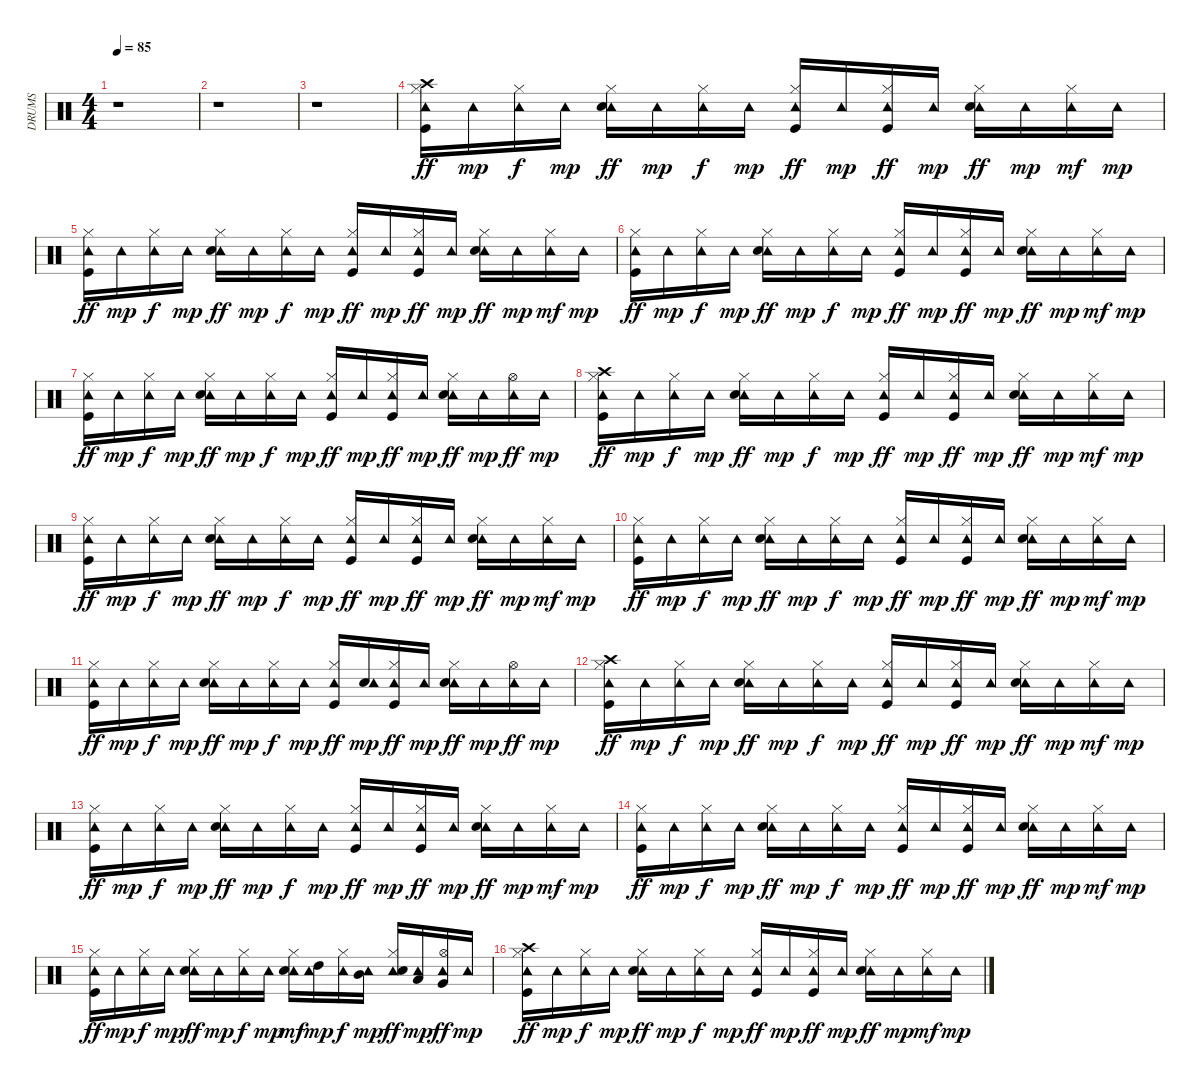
\track ("DRUMS" "DRUMS") {instrument percussion}
\staff {score}
\articulation defaults
\ts (4 4)
\tempo 85
\clef neutral
\ks c
r.1{dy f} |
r.1 |
r.1 |
("Tambourine (hit)" "Crash high (hit)" "Hi-Hat (closed)" "Kick (hit)").16{dy ff} "Tambourine (hit)".16{dy mp} ("Tambourine (hit)" "Hi-Hat (closed)").16{dy f} "Tambourine (hit)".16{dy mp} ("Tambourine (hit)" "Electric Snare (hit)" "Hi-Hat (closed)").16{dy ff} "Tambourine (hit)".16{dy mp} ("Tambourine (hit)" "Hi-Hat (closed)").16{dy f} "Tambourine (hit)".16{dy mp} ("Tambourine (hit)" "Hi-Hat (closed)" "Kick (hit)").16{dy ff} "Tambourine (hit)".16{dy mp} ("Tambourine (hit)" "Hi-Hat (closed)" "Kick (hit)").16{dy ff} "Tambourine (hit)".16{dy mp} ("Tambourine (hit)" "Electric Snare (hit)" "Hi-Hat (closed)").16{dy ff} "Tambourine (hit)".16{dy mp} ("Tambourine (hit)" "Hi-Hat (closed)").16{dy mf} "Tambourine (hit)".16{dy mp} |
("Tambourine (hit)" "Hi-Hat (closed)" "Kick (hit)").16{dy ff} "Tambourine (hit)".16{dy mp} ("Tambourine (hit)" "Hi-Hat (closed)").16{dy f} "Tambourine (hit)".16{dy mp} ("Tambourine (hit)" "Electric Snare (hit)" "Hi-Hat (closed)").16{dy ff} "Tambourine (hit)".16{dy mp} ("Tambourine (hit)" "Hi-Hat (closed)").16{dy f} "Tambourine (hit)".16{dy mp} ("Tambourine (hit)" "Hi-Hat (closed)" "Kick (hit)").16{dy ff} "Tambourine (hit)".16{dy mp} ("Tambourine (hit)" "Hi-Hat (closed)" "Kick (hit)").16{dy ff} "Tambourine (hit)".16{dy mp} ("Tambourine (hit)" "Electric Snare (hit)" "Hi-Hat (closed)").16{dy ff} "Tambourine (hit)".16{dy mp} ("Tambourine (hit)" "Hi-Hat (closed)").16{dy mf} "Tambourine (hit)".16{dy mp} |
("Tambourine (hit)" "Hi-Hat (closed)" "Kick (hit)").16{dy ff} "Tambourine (hit)".16{dy mp} ("Tambourine (hit)" "Hi-Hat (closed)").16{dy f} "Tambourine (hit)".16{dy mp} ("Tambourine (hit)" "Electric Snare (hit)" "Hi-Hat (closed)").16{dy ff} "Tambourine (hit)".16{dy mp} ("Tambourine (hit)" "Hi-Hat (closed)").16{dy f} "Tambourine (hit)".16{dy mp} ("Tambourine (hit)" "Hi-Hat (closed)" "Kick (hit)").16{dy ff} "Tambourine (hit)".16{dy mp} ("Tambourine (hit)" "Hi-Hat (closed)" "Kick (hit)").16{dy ff} "Tambourine (hit)".16{dy mp} ("Tambourine (hit)" "Electric Snare (hit)" "Hi-Hat (closed)").16{dy ff} "Tambourine (hit)".16{dy mp} ("Tambourine (hit)" "Hi-Hat (closed)").16{dy mf} "Tambourine (hit)".16{dy mp} |
("Tambourine (hit)" "Hi-Hat (closed)" "Kick (hit)").16{dy ff} "Tambourine (hit)".16{dy mp} ("Tambourine (hit)" "Hi-Hat (closed)").16{dy f} "Tambourine (hit)".16{dy mp} ("Tambourine (hit)" "Electric Snare (hit)" "Hi-Hat (closed)").16{dy ff} "Tambourine (hit)".16{dy mp} ("Tambourine (hit)" "Hi-Hat (closed)").16{dy f} "Tambourine (hit)".16{dy mp} ("Tambourine (hit)" "Hi-Hat (closed)" "Kick (hit)").16{dy ff} "Tambourine (hit)".16{dy mp} ("Tambourine (hit)" "Hi-Hat (closed)" "Kick (hit)").16{dy ff} "Tambourine (hit)".16{dy mp} ("Tambourine (hit)" "Electric Snare (hit)" "Hi-Hat (closed)").16{dy ff} "Tambourine (hit)".16{dy mp} ("Tambourine (hit)" "Hi-Hat (open)").16{dy ff} "Tambourine (hit)".16{dy mp} |
("Tambourine (hit)" "Crash high (hit)" "Hi-Hat (closed)" "Kick (hit)").16{dy ff} "Tambourine (hit)".16{dy mp} ("Tambourine (hit)" "Hi-Hat (closed)").16{dy f} "Tambourine (hit)".16{dy mp} ("Tambourine (hit)" "Electric Snare (hit)" "Hi-Hat (closed)").16{dy ff} "Tambourine (hit)".16{dy mp} ("Tambourine (hit)" "Hi-Hat (closed)").16{dy f} "Tambourine (hit)".16{dy mp} ("Tambourine (hit)" "Hi-Hat (closed)" "Kick (hit)").16{dy ff} "Tambourine (hit)".16{dy mp} ("Tambourine (hit)" "Hi-Hat (closed)" "Kick (hit)").16{dy ff} "Tambourine (hit)".16{dy mp} ("Tambourine (hit)" "Electric Snare (hit)" "Hi-Hat (closed)").16{dy ff} "Tambourine (hit)".16{dy mp} ("Tambourine (hit)" "Hi-Hat (closed)").16{dy mf} "Tambourine (hit)".16{dy mp} |
("Tambourine (hit)" "Hi-Hat (closed)" "Kick (hit)").16{dy ff} "Tambourine (hit)".16{dy mp} ("Tambourine (hit)" "Hi-Hat (closed)").16{dy f} "Tambourine (hit)".16{dy mp} ("Tambourine (hit)" "Electric Snare (hit)" "Hi-Hat (closed)").16{dy ff} "Tambourine (hit)".16{dy mp} ("Tambourine (hit)" "Hi-Hat (closed)").16{dy f} "Tambourine (hit)".16{dy mp} ("Tambourine (hit)" "Hi-Hat (closed)" "Kick (hit)").16{dy ff} "Tambourine (hit)".16{dy mp} ("Tambourine (hit)" "Hi-Hat (closed)" "Kick (hit)").16{dy ff} "Tambourine (hit)".16{dy mp} ("Tambourine (hit)" "Electric Snare (hit)" "Hi-Hat (closed)").16{dy ff} "Tambourine (hit)".16{dy mp} ("Tambourine (hit)" "Hi-Hat (closed)").16{dy mf} "Tambourine (hit)".16{dy mp} |
("Tambourine (hit)" "Hi-Hat (closed)" "Kick (hit)").16{dy ff} "Tambourine (hit)".16{dy mp} ("Tambourine (hit)" "Hi-Hat (closed)").16{dy f} "Tambourine (hit)".16{dy mp} ("Tambourine (hit)" "Electric Snare (hit)" "Hi-Hat (closed)").16{dy ff} "Tambourine (hit)".16{dy mp} ("Tambourine (hit)" "Hi-Hat (closed)").16{dy f} "Tambourine (hit)".16{dy mp} ("Tambourine (hit)" "Hi-Hat (closed)" "Kick (hit)").16{dy ff} "Tambourine (hit)".16{dy mp} ("Tambourine (hit)" "Hi-Hat (closed)" "Kick (hit)").16{dy ff} "Tambourine (hit)".16{dy mp} ("Tambourine (hit)" "Electric Snare (hit)" "Hi-Hat (closed)").16{dy ff} "Tambourine (hit)".16{dy mp} ("Tambourine (hit)" "Hi-Hat (closed)").16{dy mf} "Tambourine (hit)".16{dy mp} |
("Tambourine (hit)" "Hi-Hat (closed)" "Kick (hit)").16{dy ff} "Tambourine (hit)".16{dy mp} ("Tambourine (hit)" "Hi-Hat (closed)").16{dy f} "Tambourine (hit)".16{dy mp} ("Tambourine (hit)" "Electric Snare (hit)" "Hi-Hat (closed)").16{dy ff} "Tambourine (hit)".16{dy mp} ("Tambourine (hit)" "Hi-Hat (closed)").16{dy f} "Tambourine (hit)".16{dy mp} ("Tambourine (hit)" "Hi-Hat (closed)" "Kick (hit)").16{dy ff} ("Electric Snare (hit)" "Tambourine (hit)").16{dy mp} ("Tambourine (hit)" "Hi-Hat (closed)" "Kick (hit)").16{dy ff} "Tambourine (hit)".16{dy mp} ("Tambourine (hit)" "Electric Snare (hit)" "Hi-Hat (closed)").16{dy ff} "Tambourine (hit)".16{dy mp} ("Tambourine (hit)" "Hi-Hat (open)").16{dy ff} "Tambourine (hit)".16{dy mp} |
("Tambourine (hit)" "Crash high (hit)" "Hi-Hat (closed)" "Kick (hit)").16{dy ff} "Tambourine (hit)".16{dy mp} ("Tambourine (hit)" "Hi-Hat (closed)").16{dy f} "Tambourine (hit)".16{dy mp} ("Tambourine (hit)" "Electric Snare (hit)" "Hi-Hat (closed)").16{dy ff} "Tambourine (hit)".16{dy mp} ("Tambourine (hit)" "Hi-Hat (closed)").16{dy f} "Tambourine (hit)".16{dy mp} ("Tambourine (hit)" "Hi-Hat (closed)" "Kick (hit)").16{dy ff} "Tambourine (hit)".16{dy mp} ("Tambourine (hit)" "Hi-Hat (closed)" "Kick (hit)").16{dy ff} "Tambourine (hit)".16{dy mp} ("Tambourine (hit)" "Electric Snare (hit)" "Hi-Hat (closed)").16{dy ff} "Tambourine (hit)".16{dy mp} ("Tambourine (hit)" "Hi-Hat (closed)").16{dy mf} "Tambourine (hit)".16{dy mp} |
("Tambourine (hit)" "Hi-Hat (closed)" "Kick (hit)").16{dy ff} "Tambourine (hit)".16{dy mp} ("Tambourine (hit)" "Hi-Hat (closed)").16{dy f} "Tambourine (hit)".16{dy mp} ("Tambourine (hit)" "Electric Snare (hit)" "Hi-Hat (closed)").16{dy ff} "Tambourine (hit)".16{dy mp} ("Tambourine (hit)" "Hi-Hat (closed)").16{dy f} "Tambourine (hit)".16{dy mp} ("Tambourine (hit)" "Hi-Hat (closed)" "Kick (hit)").16{dy ff} "Tambourine (hit)".16{dy mp} ("Tambourine (hit)" "Hi-Hat (closed)" "Kick (hit)").16{dy ff} "Tambourine (hit)".16{dy mp} ("Tambourine (hit)" "Electric Snare (hit)" "Hi-Hat (closed)").16{dy ff} "Tambourine (hit)".16{dy mp} ("Tambourine (hit)" "Hi-Hat (closed)").16{dy mf} "Tambourine (hit)".16{dy mp} |
("Tambourine (hit)" "Hi-Hat (closed)" "Kick (hit)").16{dy ff} "Tambourine (hit)".16{dy mp} ("Tambourine (hit)" "Hi-Hat (closed)").16{dy f} "Tambourine (hit)".16{dy mp} ("Tambourine (hit)" "Electric Snare (hit)" "Hi-Hat (closed)").16{dy ff} "Tambourine (hit)".16{dy mp} ("Tambourine (hit)" "Hi-Hat (closed)").16{dy f} "Tambourine (hit)".16{dy mp} ("Tambourine (hit)" "Hi-Hat (closed)" "Kick (hit)").16{dy ff} "Tambourine (hit)".16{dy mp} ("Tambourine (hit)" "Hi-Hat (closed)" "Kick (hit)").16{dy ff} "Tambourine (hit)".16{dy mp} ("Tambourine (hit)" "Electric Snare (hit)" "Hi-Hat (closed)").16{dy ff} "Tambourine (hit)".16{dy mp} ("Tambourine (hit)" "Hi-Hat (closed)").16{dy mf} "Tambourine (hit)".16{dy mp} |
("Tambourine (hit)" "Hi-Hat (closed)" "Kick (hit)").16{dy ff} "Tambourine (hit)".16{dy mp} ("Tambourine (hit)" "Hi-Hat (closed)").16{dy f} "Tambourine (hit)".16{dy mp} ("Tambourine (hit)" "Electric Snare (hit)" "Hi-Hat (closed)").16{dy ff} "Tambourine (hit)".16{dy mp} ("Tambourine (hit)" "Hi-Hat (closed)").16{dy f} "Tambourine (hit)".16{dy mp} ("Tambourine (hit)" "Electric Snare (hit)" "Hi-Hat (closed)").16{dy mf} ("High Tom (hit)" "Tambourine (hit)").16{dy mp} ("Tambourine (hit)" "Hi-Hat (closed)").16{dy f} ("Mid Tom (hit)" "Tambourine (hit)").16{dy mp} ("Tambourine (hit)" "Electric Snare (hit)" "Hi-Hat (closed)").16{dy ff} ("Low Tom (hit)" "Tambourine (hit)").16{dy mp} ("Very Low Tom (hit)" "Tambourine (hit)" "Hi-Hat (open)").16{dy ff} "Tambourine (hit)".16{dy mp} |
("Tambourine (hit)" "Crash high (hit)" "Hi-Hat (closed)" "Kick (hit)").16{dy ff} "Tambourine (hit)".16{dy mp} ("Tambourine (hit)" "Hi-Hat (closed)").16{dy f} "Tambourine (hit)".16{dy mp} ("Tambourine (hit)" "Electric Snare (hit)" "Hi-Hat (closed)").16{dy ff} "Tambourine (hit)".16{dy mp} ("Tambourine (hit)" "Hi-Hat (closed)").16{dy f} "Tambourine (hit)".16{dy mp} ("Tambourine (hit)" "Hi-Hat (closed)" "Kick (hit)").16{dy ff} "Tambourine (hit)".16{dy mp} ("Tambourine (hit)" "Hi-Hat (closed)" "Kick (hit)").16{dy ff} "Tambourine (hit)".16{dy mp} ("Tambourine (hit)" "Electric Snare (hit)" "Hi-Hat (closed)").16{dy ff} "Tambourine (hit)".16{dy mp} ("Tambourine (hit)" "Hi-Hat (closed)").16{dy mf} "Tambourine (hit)".16{dy mp}
